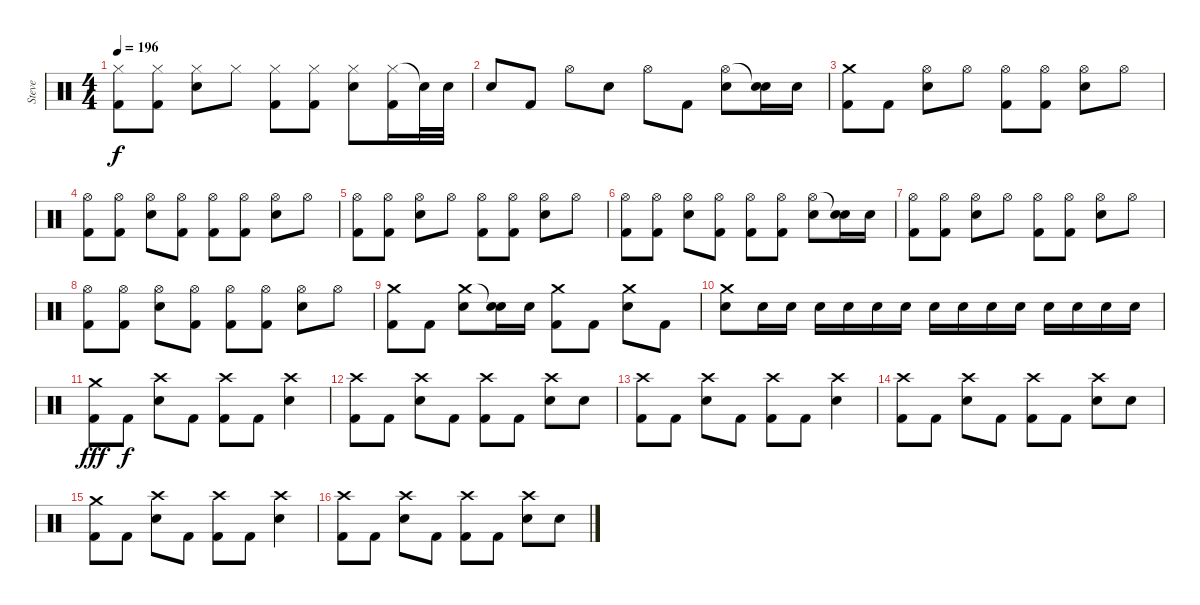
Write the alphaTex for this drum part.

\track ("Steve" "Steve") {instrument percussion}
\staff {score}
\articulation defaults
\ts (4 4)
\tempo 196
\clef neutral
\ks c
("Hi-Hat (closed)" "Kick (hit) 2").8{dy f} ("Hi-Hat (closed)" "Kick (hit) 2").8 ("Hi-Hat (closed)" "Electric Snare (hit)").8 "Hi-Hat (closed)".8 ("Hi-Hat (closed)" "Kick (hit) 2").8 ("Hi-Hat (closed)" "Kick (hit) 2").8 ("Hi-Hat (closed)" "Electric Snare (hit)").8 ("Hi-Hat (closed)" "Kick (hit) 2").16 "Snare (hit)"{t}.32 "Electric Snare (hit)".32 |
"Electric Snare (hit)".8 "Kick (hit) 2".8 "Hi-Hat (open)".8 "Electric Snare (hit)".8 "Hi-Hat (open)".8 "Kick (hit) 2".8 ("Hi-Hat (open)" "Electric Snare (hit)").8 ("Snare (hit)"{t} "Electric Snare (hit)").16 "Electric Snare (hit)".16 |
("Crash medium (hit)" "Kick (hit) 2").8 "Kick (hit) 2".8 ("Hi-Hat (open)" "Electric Snare (hit)").8 "Hi-Hat (open)".8 ("Hi-Hat (open)" "Kick (hit) 2").8 ("Hi-Hat (open)" "Kick (hit) 2").8 ("Hi-Hat (open)" "Electric Snare (hit)").8 "Hi-Hat (open)".8 |
("Hi-Hat (open)" "Kick (hit) 2").8 ("Hi-Hat (open)" "Kick (hit) 2").8 ("Hi-Hat (open)" "Electric Snare (hit)").8 ("Hi-Hat (open)" "Kick (hit) 2").8 ("Hi-Hat (open)" "Kick (hit) 2").8 ("Hi-Hat (open)" "Kick (hit) 2").8 ("Hi-Hat (open)" "Electric Snare (hit)").8 "Hi-Hat (open)".8 |
("Hi-Hat (open)" "Kick (hit) 2").8 ("Hi-Hat (open)" "Kick (hit) 2").8 ("Hi-Hat (open)" "Electric Snare (hit)").8 "Hi-Hat (open)".8 ("Hi-Hat (open)" "Kick (hit) 2").8 ("Hi-Hat (open)" "Kick (hit) 2").8 ("Hi-Hat (open)" "Electric Snare (hit)").8 "Hi-Hat (open)".8 |
("Hi-Hat (open)" "Kick (hit) 2").8 ("Hi-Hat (open)" "Kick (hit) 2").8 ("Hi-Hat (open)" "Electric Snare (hit)").8 ("Hi-Hat (open)" "Kick (hit) 2").8 ("Hi-Hat (open)" "Kick (hit) 2").8 ("Hi-Hat (open)" "Kick (hit) 2").8 ("Hi-Hat (open)" "Electric Snare (hit)").8 ("Snare (hit)"{t} "Electric Snare (hit)").16 "Electric Snare (hit)".16 |
("Hi-Hat (open)" "Kick (hit) 2").8 ("Hi-Hat (open)" "Kick (hit) 2").8 ("Hi-Hat (open)" "Electric Snare (hit)").8 "Hi-Hat (open)".8 ("Hi-Hat (open)" "Kick (hit) 2").8 ("Hi-Hat (open)" "Kick (hit) 2").8 ("Hi-Hat (open)" "Electric Snare (hit)").8 "Hi-Hat (open)".8 |
("Hi-Hat (open)" "Kick (hit) 2").8 ("Hi-Hat (open)" "Kick (hit) 2").8 ("Hi-Hat (open)" "Electric Snare (hit)").8 ("Hi-Hat (open)" "Kick (hit) 2").8 ("Hi-Hat (open)" "Kick (hit) 2").8 ("Hi-Hat (open)" "Kick (hit) 2").8 ("Hi-Hat (open)" "Electric Snare (hit)").8 "Hi-Hat (open)".8 |
("Crash medium (hit)" "Kick (hit) 2").8 "Kick (hit) 2".8 ("Crash medium (hit)" "Electric Snare (hit)").8 ("Snare (hit)"{t} "Electric Snare (hit)").16 "Electric Snare (hit)".16 ("Crash medium (hit)" "Kick (hit) 2").8 "Kick (hit) 2".8 ("Crash medium (hit)" "Electric Snare (hit)").8 "Kick (hit) 2".8 |
("Crash medium (hit)" "Electric Snare (hit)").8 "Electric Snare (hit)".16 "Electric Snare (hit)".16 "Electric Snare (hit)".16 "Electric Snare (hit)".16 "Electric Snare (hit)".16 "Electric Snare (hit)".16 "Electric Snare (hit)".16 "Electric Snare (hit)".16 "Electric Snare (hit)".16 "Electric Snare (hit)".16 "Electric Snare (hit)".16 "Electric Snare (hit)".16 "Electric Snare (hit)".16 "Electric Snare (hit)".16 |
("Crash medium (hit)" "Kick (hit) 2").8{dy fff} "Kick (hit) 2".8{dy f} ("Crash high (hit)" "Electric Snare (hit)").8 "Kick (hit) 2".8 ("Crash high (hit)" "Kick (hit) 2").8 "Kick (hit) 2".8 ("Crash high (hit)" "Electric Snare (hit)").4 |
("Crash high (hit)" "Kick (hit) 2").8 "Kick (hit) 2".8 ("Crash high (hit)" "Electric Snare (hit)").8 "Kick (hit) 2".8 ("Crash high (hit)" "Kick (hit) 2").8 "Kick (hit) 2".8 ("Crash high (hit)" "Electric Snare (hit)").8 "Electric Snare (hit)".8 |
("Crash high (hit)" "Kick (hit) 2").8 "Kick (hit) 2".8 ("Crash high (hit)" "Electric Snare (hit)").8 "Kick (hit) 2".8 ("Crash high (hit)" "Kick (hit) 2").8 "Kick (hit) 2".8 ("Crash high (hit)" "Electric Snare (hit)").4 |
("Crash high (hit)" "Kick (hit) 2").8 "Kick (hit) 2".8 ("Crash high (hit)" "Electric Snare (hit)").8 "Kick (hit) 2".8 ("Crash high (hit)" "Kick (hit) 2").8 "Kick (hit) 2".8 ("Crash high (hit)" "Electric Snare (hit)").8 "Electric Snare (hit)".8 |
("Crash medium (hit)" "Kick (hit) 2").8 "Kick (hit) 2".8 ("Crash high (hit)" "Electric Snare (hit)").8 "Kick (hit) 2".8 ("Crash high (hit)" "Kick (hit) 2").8 "Kick (hit) 2".8 ("Crash high (hit)" "Electric Snare (hit)").4 |
("Crash high (hit)" "Kick (hit) 2").8 "Kick (hit) 2".8 ("Crash high (hit)" "Electric Snare (hit)").8 "Kick (hit) 2".8 ("Crash high (hit)" "Kick (hit) 2").8 "Kick (hit) 2".8 ("Crash high (hit)" "Electric Snare (hit)").8 "Electric Snare (hit)".8
